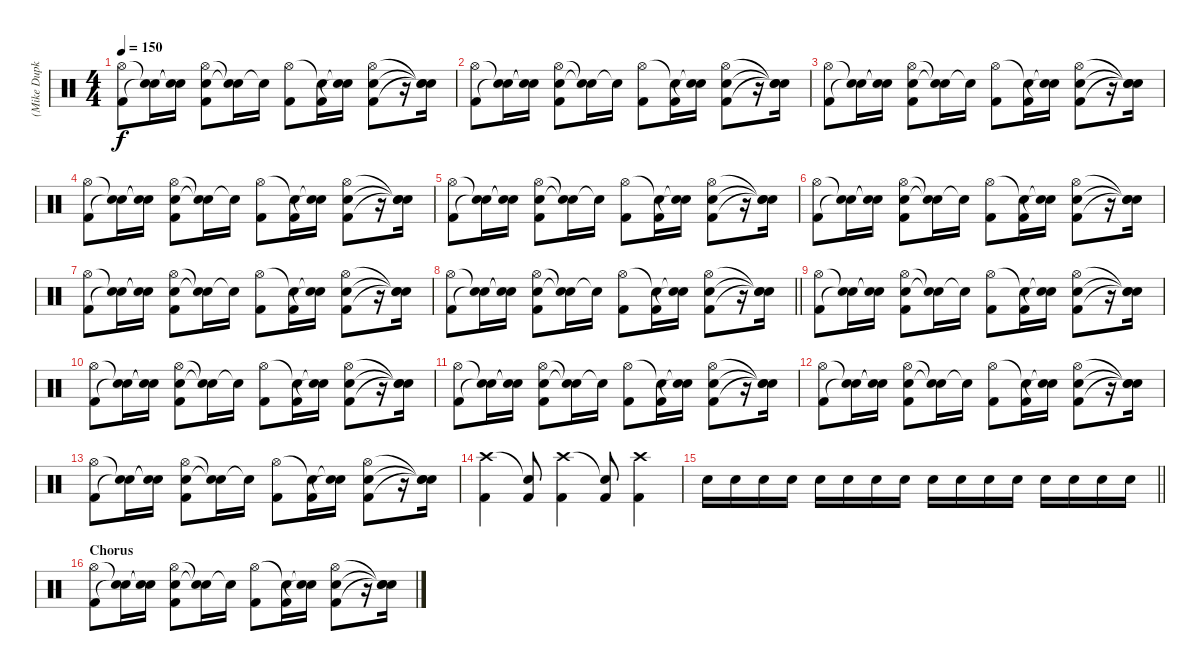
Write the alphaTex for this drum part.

\track ("(Mike Dupke) Drums" "(Mike Dupk") {instrument percussion}
\staff {score}
\articulation defaults
\ts (4 4)
\tempo 150
\clef neutral
\ks c
("Hi-Hat (open)" "Kick (hit) 2").8{dy f} ("Snare (hit)"{t} "Snare (hit)"{t}).16 ("Snare (hit)"{t} "Snare (hit)"{t}).16 ("Hi-Hat (open)" "Snare (hit) 2" "Kick (hit) 2").8 ("Snare (hit)"{t} "Snare (hit)"{t}).16 "Snare (hit)"{t}.16 ("Hi-Hat (open)" "Kick (hit) 2").8 ("Snare (hit)"{t} "Kick (hit) 2").16 ("Snare (hit)"{t} "Snare (hit)"{t}).16 ("Hi-Hat (open)" "Snare (hit) 2" "Kick (hit) 2").8 r.16 ("Snare (hit)"{t} "Snare (hit)"{t} "Snare (hit)"{t}).16 |
("Hi-Hat (open)" "Kick (hit) 2").8 ("Snare (hit)"{t} "Snare (hit)"{t}).16 ("Snare (hit)"{t} "Snare (hit)"{t}).16 ("Hi-Hat (open)" "Snare (hit) 2" "Kick (hit) 2").8 ("Snare (hit)"{t} "Snare (hit)"{t}).16 "Snare (hit)"{t}.16 ("Hi-Hat (open)" "Kick (hit) 2").8 ("Snare (hit)"{t} "Kick (hit) 2").16 ("Snare (hit)"{t} "Snare (hit)"{t}).16 ("Hi-Hat (open)" "Snare (hit) 2" "Kick (hit) 2").8 r.16 ("Snare (hit)"{t} "Snare (hit)"{t} "Snare (hit)"{t}).16 |
("Hi-Hat (open)" "Kick (hit) 2").8 ("Snare (hit)"{t} "Snare (hit)"{t}).16 ("Snare (hit)"{t} "Snare (hit)"{t}).16 ("Hi-Hat (open)" "Snare (hit) 2" "Kick (hit) 2").8 ("Snare (hit)"{t} "Snare (hit)"{t}).16 "Snare (hit)"{t}.16 ("Hi-Hat (open)" "Kick (hit) 2").8 ("Snare (hit)"{t} "Kick (hit) 2").16 ("Snare (hit)"{t} "Snare (hit)"{t}).16 ("Hi-Hat (open)" "Snare (hit) 2" "Kick (hit) 2").8 r.16 ("Snare (hit)"{t} "Snare (hit)"{t} "Snare (hit)"{t}).16 |
("Hi-Hat (open)" "Kick (hit) 2").8 ("Snare (hit)"{t} "Snare (hit)"{t}).16 ("Snare (hit)"{t} "Snare (hit)"{t}).16 ("Hi-Hat (open)" "Snare (hit) 2" "Kick (hit) 2").8 ("Snare (hit)"{t} "Snare (hit)"{t}).16 "Snare (hit)"{t}.16 ("Hi-Hat (open)" "Kick (hit) 2").8 ("Snare (hit)"{t} "Kick (hit) 2").16 ("Snare (hit)"{t} "Snare (hit)"{t}).16 ("Hi-Hat (open)" "Snare (hit) 2" "Kick (hit) 2").8 r.16 ("Snare (hit)"{t} "Snare (hit)"{t} "Snare (hit)"{t}).16 |
("Hi-Hat (open)" "Kick (hit) 2").8 ("Snare (hit)"{t} "Snare (hit)"{t}).16 ("Snare (hit)"{t} "Snare (hit)"{t}).16 ("Hi-Hat (open)" "Snare (hit) 2" "Kick (hit) 2").8 ("Snare (hit)"{t} "Snare (hit)"{t}).16 "Snare (hit)"{t}.16 ("Hi-Hat (open)" "Kick (hit) 2").8 ("Snare (hit)"{t} "Kick (hit) 2").16 ("Snare (hit)"{t} "Snare (hit)"{t}).16 ("Hi-Hat (open)" "Snare (hit) 2" "Kick (hit) 2").8 r.16 ("Snare (hit)"{t} "Snare (hit)"{t} "Snare (hit)"{t}).16 |
("Hi-Hat (open)" "Kick (hit) 2").8 ("Snare (hit)"{t} "Snare (hit)"{t}).16 ("Snare (hit)"{t} "Snare (hit)"{t}).16 ("Hi-Hat (open)" "Snare (hit) 2" "Kick (hit) 2").8 ("Snare (hit)"{t} "Snare (hit)"{t}).16 "Snare (hit)"{t}.16 ("Hi-Hat (open)" "Kick (hit) 2").8 ("Snare (hit)"{t} "Kick (hit) 2").16 ("Snare (hit)"{t} "Snare (hit)"{t}).16 ("Hi-Hat (open)" "Snare (hit) 2" "Kick (hit) 2").8 r.16 ("Snare (hit)"{t} "Snare (hit)"{t} "Snare (hit)"{t}).16 |
("Hi-Hat (open)" "Kick (hit) 2").8 ("Snare (hit)"{t} "Snare (hit)"{t}).16 ("Snare (hit)"{t} "Snare (hit)"{t}).16 ("Hi-Hat (open)" "Snare (hit) 2" "Kick (hit) 2").8 ("Snare (hit)"{t} "Snare (hit)"{t}).16 "Snare (hit)"{t}.16 ("Hi-Hat (open)" "Kick (hit) 2").8 ("Snare (hit)"{t} "Kick (hit) 2").16 ("Snare (hit)"{t} "Snare (hit)"{t}).16 ("Hi-Hat (open)" "Snare (hit) 2" "Kick (hit) 2").8 r.16 ("Snare (hit)"{t} "Snare (hit)"{t} "Snare (hit)"{t}).16 |
\barLineRight lightlight
("Hi-Hat (open)" "Kick (hit) 2").8 ("Snare (hit)"{t} "Snare (hit)"{t}).16 ("Snare (hit)"{t} "Snare (hit)"{t}).16 ("Hi-Hat (open)" "Snare (hit) 2" "Kick (hit) 2").8 ("Snare (hit)"{t} "Snare (hit)"{t}).16 "Snare (hit)"{t}.16 ("Hi-Hat (open)" "Kick (hit) 2").8 ("Snare (hit)"{t} "Kick (hit) 2").16 ("Snare (hit)"{t} "Snare (hit)"{t}).16 ("Hi-Hat (open)" "Snare (hit) 2" "Kick (hit) 2").8 r.16 ("Snare (hit)"{t} "Snare (hit)"{t} "Snare (hit)"{t}).16 |
("Hi-Hat (open)" "Kick (hit) 2").8 ("Snare (hit)"{t} "Snare (hit)"{t}).16 ("Snare (hit)"{t} "Snare (hit)"{t}).16 ("Hi-Hat (open)" "Snare (hit) 2" "Kick (hit) 2").8 ("Snare (hit)"{t} "Snare (hit)"{t}).16 "Snare (hit)"{t}.16 ("Hi-Hat (open)" "Kick (hit) 2").8 ("Snare (hit)"{t} "Kick (hit) 2").16 ("Snare (hit)"{t} "Snare (hit)"{t}).16 ("Hi-Hat (open)" "Snare (hit) 2" "Kick (hit) 2").8 r.16 ("Snare (hit)"{t} "Snare (hit)"{t} "Snare (hit)"{t}).16 |
("Hi-Hat (open)" "Kick (hit) 2").8 ("Snare (hit)"{t} "Snare (hit)"{t}).16 ("Snare (hit)"{t} "Snare (hit)"{t}).16 ("Hi-Hat (open)" "Snare (hit) 2" "Kick (hit) 2").8 ("Snare (hit)"{t} "Snare (hit)"{t}).16 "Snare (hit)"{t}.16 ("Hi-Hat (open)" "Kick (hit) 2").8 ("Snare (hit)"{t} "Kick (hit) 2").16 ("Snare (hit)"{t} "Snare (hit)"{t}).16 ("Hi-Hat (open)" "Snare (hit) 2" "Kick (hit) 2").8 r.16 ("Snare (hit)"{t} "Snare (hit)"{t} "Snare (hit)"{t}).16 |
("Hi-Hat (open)" "Kick (hit) 2").8 ("Snare (hit)"{t} "Snare (hit)"{t}).16 ("Snare (hit)"{t} "Snare (hit)"{t}).16 ("Hi-Hat (open)" "Snare (hit) 2" "Kick (hit) 2").8 ("Snare (hit)"{t} "Snare (hit)"{t}).16 "Snare (hit)"{t}.16 ("Hi-Hat (open)" "Kick (hit) 2").8 ("Snare (hit)"{t} "Kick (hit) 2").16 ("Snare (hit)"{t} "Snare (hit)"{t}).16 ("Hi-Hat (open)" "Snare (hit) 2" "Kick (hit) 2").8 r.16 ("Snare (hit)"{t} "Snare (hit)"{t} "Snare (hit)"{t}).16 |
("Hi-Hat (open)" "Kick (hit) 2").8 ("Snare (hit)"{t} "Snare (hit)"{t}).16 ("Snare (hit)"{t} "Snare (hit)"{t}).16 ("Hi-Hat (open)" "Snare (hit) 2" "Kick (hit) 2").8 ("Snare (hit)"{t} "Snare (hit)"{t}).16 "Snare (hit)"{t}.16 ("Hi-Hat (open)" "Kick (hit) 2").8 ("Snare (hit)"{t} "Kick (hit) 2").16 ("Snare (hit)"{t} "Snare (hit)"{t}).16 ("Hi-Hat (open)" "Snare (hit) 2" "Kick (hit) 2").8 r.16 ("Snare (hit)"{t} "Snare (hit)"{t} "Snare (hit)"{t}).16 |
("Hi-Hat (open)" "Kick (hit) 2").8 ("Snare (hit)"{t} "Snare (hit)"{t}).16 ("Snare (hit)"{t} "Snare (hit)"{t}).16 ("Hi-Hat (open)" "Snare (hit) 2" "Kick (hit) 2").8 ("Snare (hit)"{t} "Snare (hit)"{t}).16 "Snare (hit)"{t}.16 ("Hi-Hat (open)" "Kick (hit) 2").8 ("Snare (hit)"{t} "Kick (hit) 2").16 ("Snare (hit)"{t} "Snare (hit)"{t}).16 ("Hi-Hat (open)" "Snare (hit) 2" "Kick (hit) 2").8 r.16 ("Snare (hit)"{t} "Snare (hit)"{t} "Snare (hit)"{t}).16 |
("Crash high (hit)" "Kick (hit) 2").4 ("Snare (hit)"{t} "Kick (hit) 2").8 ("Crash high (hit)" "Kick (hit) 2").4 ("Snare (hit)"{t} "Kick (hit) 2").8 ("Crash high (hit)" "Kick (hit) 2").4 |
\barLineRight lightlight "Snare (hit) 2".16 "Snare (hit) 2".16 "Snare (hit) 2".16 "Snare (hit) 2".16 "Snare (hit) 2".16 "Snare (hit) 2".16 "Snare (hit) 2".16 "Snare (hit) 2".16 "Snare (hit) 2".16 "Snare (hit) 2".16 "Snare (hit) 2".16 "Snare (hit) 2".16 "Snare (hit) 2".16 "Snare (hit) 2".16 "Snare (hit) 2".16 "Snare (hit) 2".16
|
\section ("" "Chorus")
("Hi-Hat (open)" "Kick (hit) 2").8 ("Snare (hit)"{t} "Snare (hit)"{t}).16 ("Snare (hit)"{t} "Snare (hit)"{t}).16 ("Hi-Hat (open)" "Snare (hit) 2" "Kick (hit) 2").8 ("Snare (hit)"{t} "Snare (hit)"{t}).16 "Snare (hit)"{t}.16 ("Hi-Hat (open)" "Kick (hit) 2").8 ("Snare (hit)"{t} "Kick (hit) 2").16 ("Snare (hit)"{t} "Snare (hit)"{t}).16 ("Hi-Hat (open)" "Snare (hit) 2" "Kick (hit) 2").8 r.16 ("Snare (hit)"{t} "Snare (hit)"{t} "Snare (hit)"{t}).16
